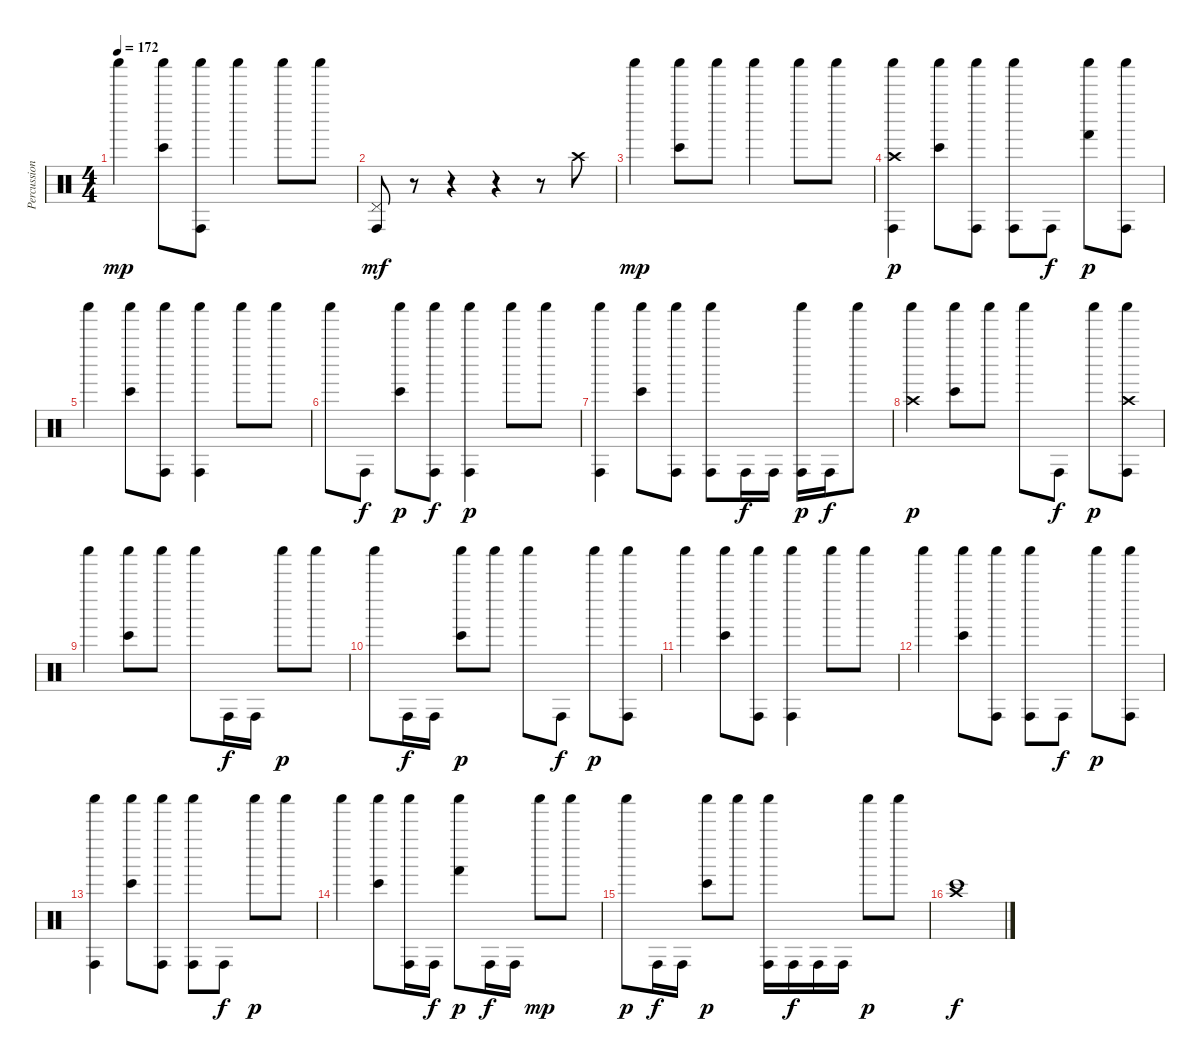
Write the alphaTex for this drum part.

\track ("Percussion" "Percussion") {instrument percussion}
\staff {score}
\articulation defaults
\ts (4 4)
\tempo 172
\clef neutral
\ks c "Shaker (hit)".4{dy mp}
("Shaker (hit)" "Bongo High (hit)").8 ("Shaker (hit)" "Conga high (hit)").8 "Shaker (hit)".4 "Shaker (hit)".8 "Shaker (hit)".8 |
("Pedal Hi-Hat (hit)" "Conga high (hit)").8{dy mf} r.8 r.4 r.4 r.8 "Crash high (hit)".8 |
"Shaker (hit)".4{dy mp} ("Shaker (hit)" "Bongo High (hit)").8 "Shaker (hit)".8 "Shaker (hit)".4 "Shaker (hit)".8 "Shaker (hit)".8 |
("Shaker (hit)" "Crash high (hit)" "Conga high (hit)").4{dy p} ("Shaker (hit)" "Bongo High (hit)").8 ("Shaker (hit)" "Conga high (hit)").8 ("Shaker (hit)" "Conga high (hit)").8 "Conga high (hit)".8{dy f} ("Shaker (hit)" "Hand (hit)").8{dy p} ("Shaker (hit)" "Conga high (hit)").8 |
"Shaker (hit)".4 ("Shaker (hit)" "Bongo High (hit)").8 ("Shaker (hit)" "Conga high (hit)").8 ("Shaker (hit)" "Conga high (hit)").4 "Shaker (hit)".8 "Shaker (hit)".8 |
"Shaker (hit)".8 "Conga high (hit)".8{dy f} ("Shaker (hit)" "Bongo High (hit)").8{dy p} ("Shaker (hit)" "Conga high (hit)").8{dy f} ("Shaker (hit)" "Conga high (hit)").4{dy p} "Shaker (hit)".8 "Shaker (hit)".8 |
("Shaker (hit)" "Conga high (hit)").4 ("Shaker (hit)" "Bongo High (hit)").8 ("Shaker (hit)" "Conga high (hit)").8 ("Shaker (hit)" "Conga high (hit)").8 "Conga high (hit)".16{dy f} "Conga high (hit)".16 ("Shaker (hit)" "Conga high (hit)").16{dy p} "Conga high (hit)".16{dy f} "Shaker (hit)".8 |
("Shaker (hit)" "Crash high (hit)").4{dy p} ("Shaker (hit)" "Bongo High (hit)").8 "Shaker (hit)".8 "Shaker (hit)".8 "Conga high (hit)".8{dy f} "Shaker (hit)".8{dy p} ("Shaker (hit)" "Crash high (hit)" "Conga high (hit)").8 |
"Shaker (hit)".4 ("Shaker (hit)" "Bongo High (hit)").8 "Shaker (hit)".8 "Shaker (hit)".8 "Conga high (hit)".16{dy f} "Conga high (hit)".16 "Shaker (hit)".8{dy p} "Shaker (hit)".8 |
"Shaker (hit)".8 "Conga high (hit)".16{dy f} "Conga high (hit)".16 ("Shaker (hit)" "Bongo High (hit)").8{dy p} "Shaker (hit)".8 "Shaker (hit)".8 "Conga high (hit)".8{dy f} "Shaker (hit)".8{dy p} ("Shaker (hit)" "Conga high (hit)").8 |
"Shaker (hit)".4 ("Shaker (hit)" "Bongo High (hit)").8 ("Shaker (hit)" "Conga high (hit)").8 ("Shaker (hit)" "Conga high (hit)").4 "Shaker (hit)".8 "Shaker (hit)".8 |
"Shaker (hit)".4 ("Shaker (hit)" "Bongo High (hit)").8 ("Shaker (hit)" "Conga high (hit)").8 ("Shaker (hit)" "Conga high (hit)").8 "Conga high (hit)".8{dy f} "Shaker (hit)".8{dy p} ("Shaker (hit)" "Conga high (hit)").8 |
("Shaker (hit)" "Conga high (hit)").4 ("Shaker (hit)" "Bongo High (hit)").8 ("Shaker (hit)" "Conga high (hit)").8 ("Shaker (hit)" "Conga high (hit)").8 "Conga high (hit)".8{dy f} "Shaker (hit)".8{dy p} "Shaker (hit)".8 |
"Shaker (hit)".4 ("Shaker (hit)" "Bongo High (hit)").8 ("Shaker (hit)" "Conga high (hit)").16 "Conga high (hit)".16{dy f} ("Shaker (hit)" "Hand (hit)").8{dy p} "Conga high (hit)".16{dy f} "Conga high (hit)".16 "Shaker (hit)".8{dy mp} "Shaker (hit)".8 |
"Shaker (hit)".8{dy p} "Conga high (hit)".16{dy f} "Conga high (hit)".16 ("Shaker (hit)" "Bongo High (hit)").8{dy p} "Shaker (hit)".8 ("Shaker (hit)" "Conga high (hit)").16 "Conga high (hit)".16{dy f} "Conga high (hit)".16 "Conga high (hit)".16 "Shaker (hit)".8{dy p} "Shaker (hit)".8 |
("Crash high (hit)" "Bongo High (hit)").1{dy f}
